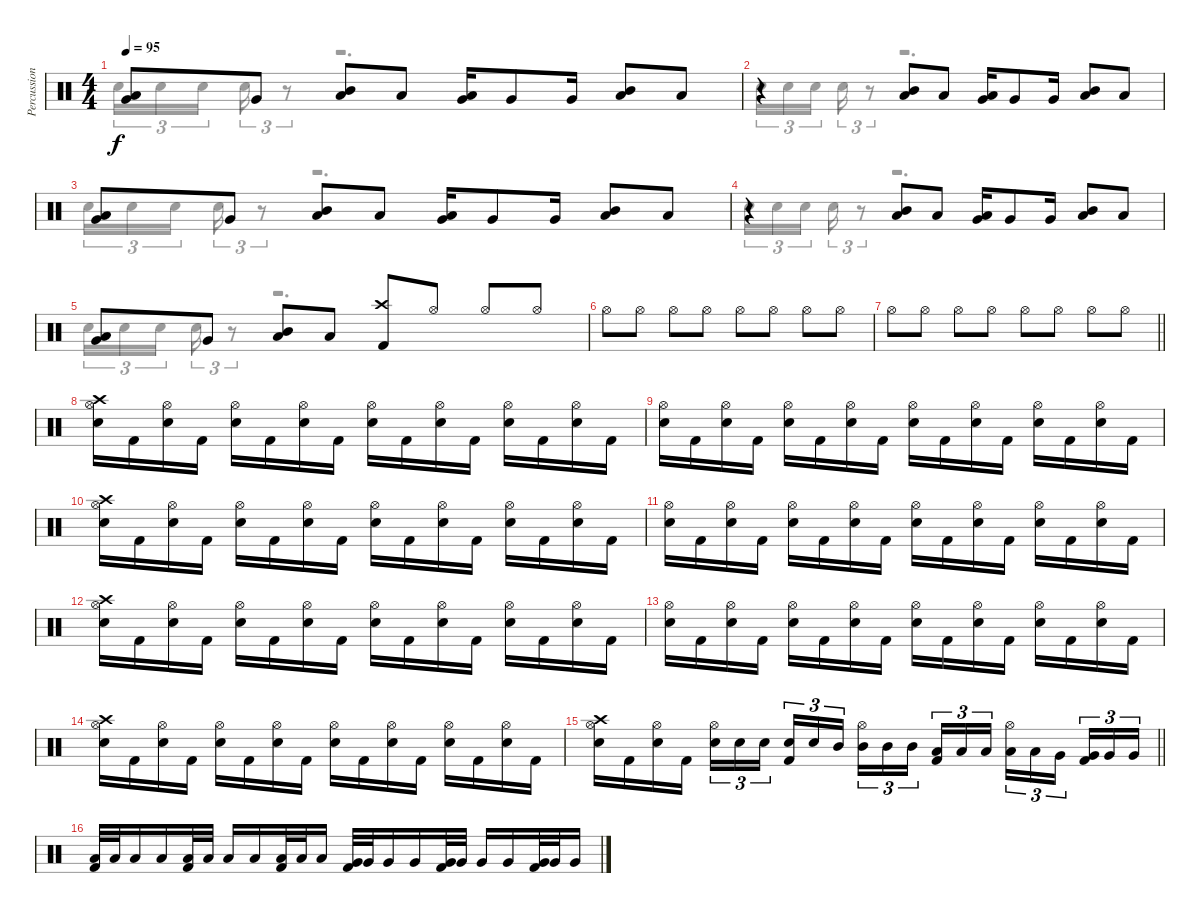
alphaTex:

\track ("Percussion" "Percussion") {instrument percussion}
\staff {score}
\articulation defaults
\voice
\ts (4 4)
\tempo 95
\clef neutral
\ks c
("Low Tom (hit)" "Very Low Tom (hit)").8{dy f} "Very Low Tom (hit)".8 ("Mid Tom (hit)" "Low Tom (hit)").8 "Low Tom (hit)".8 ("Low Tom (hit)" "Very Low Tom (hit)").16 "Very Low Tom (hit)".8 "Very Low Tom (hit)".16 ("Mid Tom (hit)" "Low Tom (hit)").8 "Low Tom (hit)".8 |
r.4 ("Mid Tom (hit)" "Low Tom (hit)").8 "Low Tom (hit)".8 ("Low Tom (hit)" "Very Low Tom (hit)").16 "Very Low Tom (hit)".8 "Very Low Tom (hit)".16 ("Mid Tom (hit)" "Low Tom (hit)").8 "Low Tom (hit)".8 |
("Low Tom (hit)" "Very Low Tom (hit)").8 "Very Low Tom (hit)".8 ("Mid Tom (hit)" "Low Tom (hit)").8 "Low Tom (hit)".8 ("Low Tom (hit)" "Very Low Tom (hit)").16 "Very Low Tom (hit)".8 "Very Low Tom (hit)".16 ("Mid Tom (hit)" "Low Tom (hit)").8 "Low Tom (hit)".8 |
r.4 ("Mid Tom (hit)" "Low Tom (hit)").8 "Low Tom (hit)".8 ("Low Tom (hit)" "Very Low Tom (hit)").16 "Very Low Tom (hit)".8 "Very Low Tom (hit)".16 ("Mid Tom (hit)" "Low Tom (hit)").8 "Low Tom (hit)".8 |
("Low Tom (hit)" "Very Low Tom (hit)").8 "Very Low Tom (hit)".8 ("Mid Tom (hit)" "Low Tom (hit)").8 "Low Tom (hit)".8 ("Crash high (hit)" "Kick (hit) 2").8 "Hi-Hat (open)".8 "Hi-Hat (open)".8 "Hi-Hat (open)".8 |
"Hi-Hat (open)".8 "Hi-Hat (open)".8 "Hi-Hat (open)".8 "Hi-Hat (open)".8 "Hi-Hat (open)".8 "Hi-Hat (open)".8 "Hi-Hat (open)".8 "Hi-Hat (open)".8 |
\barLineRight lightlight "Hi-Hat (open)".8 "Hi-Hat (open)".8 "Hi-Hat (open)".8 "Hi-Hat (open)".8 "Hi-Hat (open)".8 "Hi-Hat (open)".8 "Hi-Hat (open)".8 "Hi-Hat (open)".8
|
("Crash high (hit)" "Hi-Hat (open)" "Snare (hit) 2").16 "Kick (hit) 2".16 ("Hi-Hat (open)" "Snare (hit) 2").16 "Kick (hit) 2".16 ("Hi-Hat (open)" "Snare (hit) 2").16 "Kick (hit) 2".16 ("Hi-Hat (open)" "Snare (hit) 2").16 "Kick (hit) 2".16 ("Hi-Hat (open)" "Snare (hit) 2").16 "Kick (hit) 2".16 ("Hi-Hat (open)" "Snare (hit) 2").16 "Kick (hit) 2".16 ("Hi-Hat (open)" "Snare (hit) 2").16 "Kick (hit) 2".16 ("Hi-Hat (open)" "Snare (hit) 2").16 "Kick (hit) 2".16 |
("Hi-Hat (open)" "Snare (hit) 2").16 "Kick (hit) 2".16 ("Hi-Hat (open)" "Snare (hit) 2").16 "Kick (hit) 2".16 ("Hi-Hat (open)" "Snare (hit) 2").16 "Kick (hit) 2".16 ("Hi-Hat (open)" "Snare (hit) 2").16 "Kick (hit) 2".16 ("Hi-Hat (open)" "Snare (hit) 2").16 "Kick (hit) 2".16 ("Hi-Hat (open)" "Snare (hit) 2").16 "Kick (hit) 2".16 ("Hi-Hat (open)" "Snare (hit) 2").16 "Kick (hit) 2".16 ("Hi-Hat (open)" "Snare (hit) 2").16 "Kick (hit) 2".16 |
("Crash high (hit)" "Hi-Hat (open)" "Snare (hit) 2").16 "Kick (hit) 2".16 ("Hi-Hat (open)" "Snare (hit) 2").16 "Kick (hit) 2".16 ("Hi-Hat (open)" "Snare (hit) 2").16 "Kick (hit) 2".16 ("Hi-Hat (open)" "Snare (hit) 2").16 "Kick (hit) 2".16 ("Hi-Hat (open)" "Snare (hit) 2").16 "Kick (hit) 2".16 ("Hi-Hat (open)" "Snare (hit) 2").16 "Kick (hit) 2".16 ("Hi-Hat (open)" "Snare (hit) 2").16 "Kick (hit) 2".16 ("Hi-Hat (open)" "Snare (hit) 2").16 "Kick (hit) 2".16 |
("Hi-Hat (open)" "Snare (hit) 2").16 "Kick (hit) 2".16 ("Hi-Hat (open)" "Snare (hit) 2").16 "Kick (hit) 2".16 ("Hi-Hat (open)" "Snare (hit) 2").16 "Kick (hit) 2".16 ("Hi-Hat (open)" "Snare (hit) 2").16 "Kick (hit) 2".16 ("Hi-Hat (open)" "Snare (hit) 2").16 "Kick (hit) 2".16 ("Hi-Hat (open)" "Snare (hit) 2").16 "Kick (hit) 2".16 ("Hi-Hat (open)" "Snare (hit) 2").16 "Kick (hit) 2".16 ("Hi-Hat (open)" "Snare (hit) 2").16 "Kick (hit) 2".16 |
("Crash high (hit)" "Hi-Hat (open)" "Snare (hit) 2").16 "Kick (hit) 2".16 ("Hi-Hat (open)" "Snare (hit) 2").16 "Kick (hit) 2".16 ("Hi-Hat (open)" "Snare (hit) 2").16 "Kick (hit) 2".16 ("Hi-Hat (open)" "Snare (hit) 2").16 "Kick (hit) 2".16 ("Hi-Hat (open)" "Snare (hit) 2").16 "Kick (hit) 2".16 ("Hi-Hat (open)" "Snare (hit) 2").16 "Kick (hit) 2".16 ("Hi-Hat (open)" "Snare (hit) 2").16 "Kick (hit) 2".16 ("Hi-Hat (open)" "Snare (hit) 2").16 "Kick (hit) 2".16 |
("Hi-Hat (open)" "Snare (hit) 2").16 "Kick (hit) 2".16 ("Hi-Hat (open)" "Snare (hit) 2").16 "Kick (hit) 2".16 ("Hi-Hat (open)" "Snare (hit) 2").16 "Kick (hit) 2".16 ("Hi-Hat (open)" "Snare (hit) 2").16 "Kick (hit) 2".16 ("Hi-Hat (open)" "Snare (hit) 2").16 "Kick (hit) 2".16 ("Hi-Hat (open)" "Snare (hit) 2").16 "Kick (hit) 2".16 ("Hi-Hat (open)" "Snare (hit) 2").16 "Kick (hit) 2".16 ("Hi-Hat (open)" "Snare (hit) 2").16 "Kick (hit) 2".16 |
("Crash high (hit)" "Hi-Hat (open)" "Snare (hit) 2").16 "Kick (hit) 2".16 ("Hi-Hat (open)" "Snare (hit) 2").16 "Kick (hit) 2".16 ("Hi-Hat (open)" "Snare (hit) 2").16 "Kick (hit) 2".16 ("Hi-Hat (open)" "Snare (hit) 2").16 "Kick (hit) 2".16 ("Hi-Hat (open)" "Snare (hit) 2").16 "Kick (hit) 2".16 ("Hi-Hat (open)" "Snare (hit) 2").16 "Kick (hit) 2".16 ("Hi-Hat (open)" "Snare (hit) 2").16 "Kick (hit) 2".16 ("Hi-Hat (open)" "Snare (hit) 2").16 "Kick (hit) 2".16 |
\barLineRight lightlight
("Crash high (hit)" "Hi-Hat (open)" "Snare (hit) 2").16 "Kick (hit) 2".16 ("Hi-Hat (open)" "Snare (hit) 2").16 "Kick (hit) 2".16 ("Hi-Hat (open)" "Snare (hit) 2").16{tu (3 2)} "Snare (hit) 2".16{tu (3 2)} "Snare (hit) 2".16{tu (3 2) beam splitsecondary} ("Snare (hit) 2" "Kick (hit) 2").16{tu (3 2)} "Snare (hit) 2".16{tu (3 2)} "Mid Tom (hit)".16{tu (3 2)} ("Hi-Hat (open)" "Mid Tom (hit)").16{tu (3 2)} "Mid Tom (hit)".16{tu (3 2)} "Mid Tom (hit)".16{tu (3 2) beam splitsecondary} ("Low Tom (hit)" "Kick (hit) 2").16{tu (3 2)} "Low Tom (hit)".16{tu (3 2)} "Low Tom (hit)".16{tu (3 2)} ("Hi-Hat (open)" "Low Tom (hit)").16{tu (3 2)} "Low Tom (hit)".16{tu (3 2)} "Very Low Tom (hit)".16{tu (3 2) beam splitsecondary} ("Very Low Tom (hit)" "Kick (hit) 2").16{tu (3 2)} "Very Low Tom (hit)".16{tu (3 2)} "Very Low Tom (hit)".16{tu (3 2)} |
("Low Tom (hit)" "Kick (hit) 2").32 "Low Tom (hit)".32 "Low Tom (hit)".16 "Low Tom (hit)".16 ("Low Tom (hit)" "Kick (hit) 2").32 "Low Tom (hit)".32 "Low Tom (hit)".16 "Low Tom (hit)".16 ("Low Tom (hit)" "Kick (hit) 2").32 "Low Tom (hit)".32 "Low Tom (hit)".16 ("Very Low Tom (hit)" "Kick (hit) 2").32 "Very Low Tom (hit)".32 "Very Low Tom (hit)".16 "Very Low Tom (hit)".16 ("Very Low Tom (hit)" "Kick (hit) 2").32 "Very Low Tom (hit)".32 "Very Low Tom (hit)".16 "Very Low Tom (hit)".16 ("Very Low Tom (hit)" "Kick (hit) 2").32 "Very Low Tom (hit)".32 "Very Low Tom (hit)".16
\voice
\clef neutral
\ottava regular
\simile none
\ks c "Snare (hit) 2".16{tu (3 2) dy f} "Snare (hit) 2".16{tu (3 2)} "Snare (hit) 2".16{tu (3 2) beam splitsecondary} "Snare (hit) 2".16{tu (3 2)}
r.8{tu (3 2)} r.2{d} |
"Snare (hit) 2".16{tu (3 2)} "Snare (hit) 2".16{tu (3 2)} "Snare (hit) 2".16{tu (3 2) beam splitsecondary} "Snare (hit) 2".16{tu (3 2)} r.8{tu (3 2)} r.2{d} |
"Snare (hit) 2".16{tu (3 2)} "Snare (hit) 2".16{tu (3 2)} "Snare (hit) 2".16{tu (3 2) beam splitsecondary} "Snare (hit) 2".16{tu (3 2)} r.8{tu (3 2)} r.2{d} |
"Snare (hit) 2".16{tu (3 2)} "Snare (hit) 2".16{tu (3 2)} "Snare (hit) 2".16{tu (3 2) beam splitsecondary} "Snare (hit) 2".16{tu (3 2)} r.8{tu (3 2)} r.2{d} |
"Snare (hit) 2".16{tu (3 2)} "Snare (hit) 2".16{tu (3 2)} "Snare (hit) 2".16{tu (3 2) beam splitsecondary} "Snare (hit) 2".16{tu (3 2)} r.8{tu (3 2)} r.2{d} |
|
\barLineRight lightlight
|
|
|
|
|
|
|
|
\barLineRight lightlight
|
